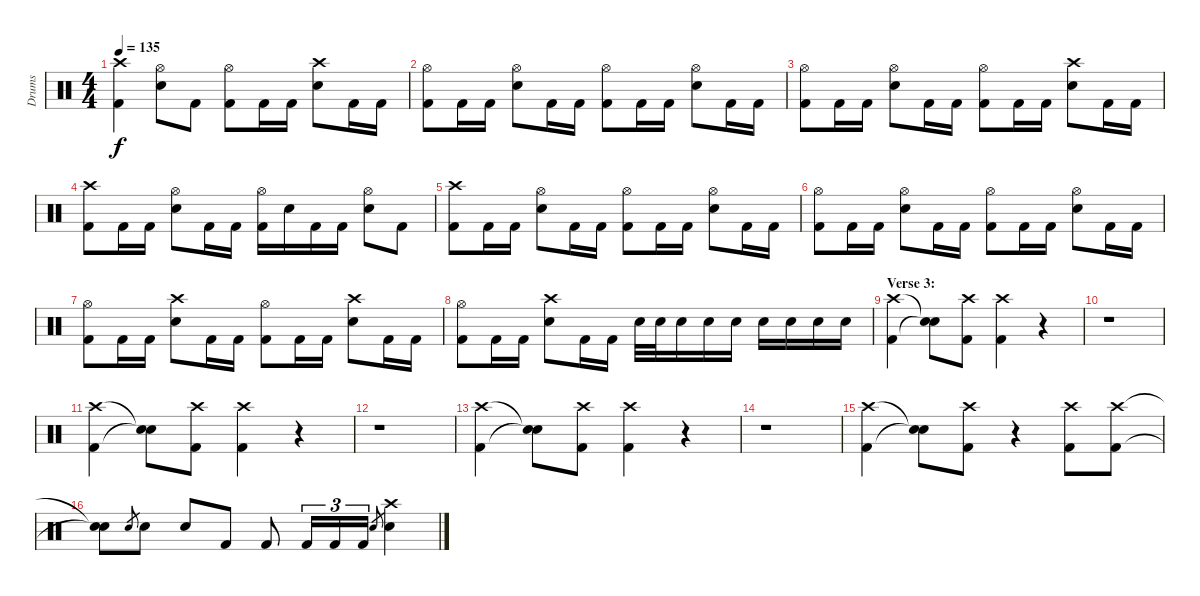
\track ("Drums" "Drums") {instrument percussion}
\staff {score}
\articulation defaults
\ts (4 4)
\tempo 135
\clef neutral
\ks c
("Crash high (hit)" "Kick (hit) 2").4{dy f} ("Hi-Hat (open)" "Electric Snare (hit)").8 "Kick (hit) 2".8 ("Hi-Hat (open)" "Kick (hit) 2").8 "Kick (hit) 2".16 "Kick (hit) 2".16 ("Crash high (hit)" "Electric Snare (hit)").8 "Kick (hit) 2".16 "Kick (hit) 2".16 |
("Hi-Hat (open)" "Kick (hit) 2").8 "Kick (hit) 2".16 "Kick (hit) 2".16 ("Hi-Hat (open)" "Electric Snare (hit)").8 "Kick (hit) 2".16 "Kick (hit) 2".16 ("Hi-Hat (open)" "Kick (hit) 2").8 "Kick (hit) 2".16 "Kick (hit) 2".16 ("Hi-Hat (open)" "Electric Snare (hit)").8 "Kick (hit) 2".16 "Kick (hit) 2".16 |
("Hi-Hat (open)" "Kick (hit) 2").8 "Kick (hit) 2".16 "Kick (hit) 2".16 ("Hi-Hat (open)" "Electric Snare (hit)").8 "Kick (hit) 2".16 "Kick (hit) 2".16 ("Hi-Hat (open)" "Kick (hit) 2").8 "Kick (hit) 2".16 "Kick (hit) 2".16 ("Crash high (hit)" "Electric Snare (hit)").8 "Kick (hit) 2".16 "Kick (hit) 2".16 |
("Crash high (hit)" "Kick (hit) 2").8 "Kick (hit) 2".16 "Kick (hit) 2".16 ("Hi-Hat (open)" "Electric Snare (hit)").8 "Kick (hit) 2".16 "Kick (hit) 2".16 ("Hi-Hat (open)" "Kick (hit) 2").16 "Electric Snare (hit)".16 "Kick (hit) 2".16 "Kick (hit) 2".16 ("Hi-Hat (open)" "Electric Snare (hit)").8 "Kick (hit) 2".8 |
("Crash high (hit)" "Kick (hit) 2").8 "Kick (hit) 2".16 "Kick (hit) 2".16 ("Hi-Hat (open)" "Electric Snare (hit)").8 "Kick (hit) 2".16 "Kick (hit) 2".16 ("Hi-Hat (open)" "Kick (hit) 2").8 "Kick (hit) 2".16 "Kick (hit) 2".16 ("Hi-Hat (open)" "Electric Snare (hit)").8 "Kick (hit) 2".16 "Kick (hit) 2".16 |
("Hi-Hat (open)" "Kick (hit) 2").8 "Kick (hit) 2".16 "Kick (hit) 2".16 ("Hi-Hat (open)" "Electric Snare (hit)").8 "Kick (hit) 2".16 "Kick (hit) 2".16 ("Hi-Hat (open)" "Kick (hit) 2").8 "Kick (hit) 2".16 "Kick (hit) 2".16 ("Hi-Hat (open)" "Electric Snare (hit)").8 "Kick (hit) 2".16 "Kick (hit) 2".16 |
("Hi-Hat (open)" "Kick (hit) 2").8 "Kick (hit) 2".16 "Kick (hit) 2".16 ("Crash high (hit)" "Electric Snare (hit)").8 "Kick (hit) 2".16 "Kick (hit) 2".16 ("Hi-Hat (open)" "Kick (hit) 2").8 "Kick (hit) 2".16 "Kick (hit) 2".16 ("Crash high (hit)" "Electric Snare (hit)").8 "Kick (hit) 2".16 "Kick (hit) 2".16 |
("Hi-Hat (open)" "Kick (hit) 2").8 "Kick (hit) 2".16 "Kick (hit) 2".16 ("Crash high (hit)" "Electric Snare (hit)").8 "Kick (hit) 2".16 "Kick (hit) 2".16 "Electric Snare (hit)".32 "Electric Snare (hit)".32 "Electric Snare (hit)".16 "Electric Snare (hit)".16 "Electric Snare (hit)".16 "Electric Snare (hit)".16 "Electric Snare (hit)".16 "Electric Snare (hit)".16 "Electric Snare (hit)".16 |
\section ("" "Verse 3:")
("Crash high (hit)" "Kick (hit) 2").4 ("Snare (hit)"{t} "Snare (hit)"{t}).8 ("Crash high (hit)" "Kick (hit) 2").8 ("Crash high (hit)" "Kick (hit) 2").4 r.4 |
r.1 |
("Crash high (hit)" "Kick (hit) 2").4 ("Snare (hit)"{t} "Snare (hit)"{t}).8 ("Crash high (hit)" "Kick (hit) 2").8 ("Crash high (hit)" "Kick (hit) 2").4 r.4 |
r.1 |
("Crash high (hit)" "Kick (hit) 2").4 ("Snare (hit)"{t} "Snare (hit)"{t}).8 ("Crash high (hit)" "Kick (hit) 2").8 ("Crash high (hit)" "Kick (hit) 2").4 r.4 |
r.1 |
("Crash high (hit)" "Kick (hit) 2").4 ("Snare (hit)"{t} "Snare (hit)"{t}).8 ("Crash high (hit)" "Kick (hit) 2").8 r.4 ("Crash high (hit)" "Kick (hit) 2").8 ("Crash high (hit)" "Kick (hit) 2").8 |
("Snare (hit)"{t} "Snare (hit)"{t}).8 "Electric Snare (hit)".8{gr} "Electric Snare (hit)".8 "Electric Snare (hit)".8 "Kick (hit) 2".8 "Kick (hit) 2".8 "Kick (hit) 2".16{tu (3 2)} "Kick (hit) 2".16{tu (3 2)} "Kick (hit) 2".16{tu (3 2)} "Electric Snare (hit)".8{gr} ("Crash high (hit)" "Electric Snare (hit)").4
